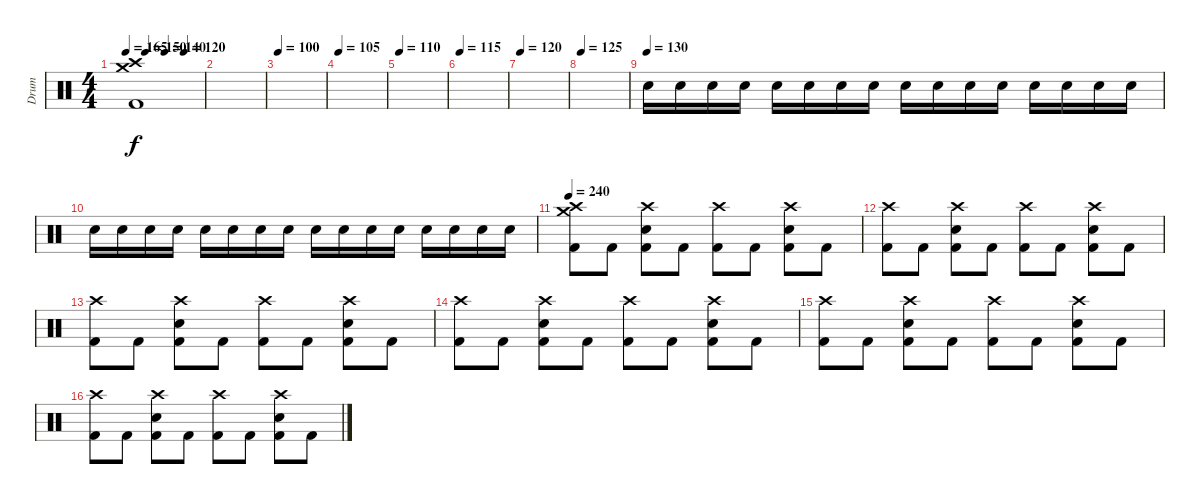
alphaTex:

\track ("Drum" "Drum") {instrument percussion}
\staff {score}
\articulation defaults
\ts (4 4)
\tempo 165
\tempo (150 0.25)
\tempo (140 0.5)
\tempo (120 0.75)
\clef neutral
\ks c
("Crash high (hit)" "Kick (hit) 2" "Crash medium (hit)").1{dy f} |
|
\tempo 100
|
\tempo 105
|
\tempo 110
|
\tempo 115
|
\tempo 120
|
\tempo 125
|
\tempo (130)
"Electric Snare (hit)".16 "Electric Snare (hit)".16 "Electric Snare (hit)".16 "Electric Snare (hit)".16 "Electric Snare (hit)".16 "Electric Snare (hit)".16 "Electric Snare (hit)".16 "Electric Snare (hit)".16 "Electric Snare (hit)".16 "Electric Snare (hit)".16 "Electric Snare (hit)".16 "Electric Snare (hit)".16 "Electric Snare (hit)".16 "Electric Snare (hit)".16 "Electric Snare (hit)".16 "Electric Snare (hit)".16 |
"Electric Snare (hit)".16 "Electric Snare (hit)".16 "Electric Snare (hit)".16 "Electric Snare (hit)".16 "Electric Snare (hit)".16 "Electric Snare (hit)".16 "Electric Snare (hit)".16 "Electric Snare (hit)".16 "Electric Snare (hit)".16 "Electric Snare (hit)".16 "Electric Snare (hit)".16 "Electric Snare (hit)".16 "Electric Snare (hit)".16 "Electric Snare (hit)".16 "Electric Snare (hit)".16 "Electric Snare (hit)".16 |
\tempo 240
("Crash high (hit)" "Kick (hit) 2" "Crash medium (hit)").8 "Kick (hit) 2".8 ("Crash high (hit)" "Kick (hit) 2" "Electric Snare (hit)").8 "Kick (hit) 2".8 ("Crash high (hit)" "Kick (hit) 2").8 "Kick (hit) 2".8 ("Crash high (hit)" "Kick (hit) 2" "Electric Snare (hit)").8 "Kick (hit) 2".8 |
("Crash high (hit)" "Kick (hit) 2").8 "Kick (hit) 2".8 ("Crash high (hit)" "Kick (hit) 2" "Electric Snare (hit)").8 "Kick (hit) 2".8 ("Crash high (hit)" "Kick (hit) 2").8 "Kick (hit) 2".8 ("Crash high (hit)" "Kick (hit) 2" "Electric Snare (hit)").8 "Kick (hit) 2".8 |
("Crash high (hit)" "Kick (hit) 2").8 "Kick (hit) 2".8 ("Crash high (hit)" "Kick (hit) 2" "Electric Snare (hit)").8 "Kick (hit) 2".8 ("Crash high (hit)" "Kick (hit) 2").8 "Kick (hit) 2".8 ("Crash high (hit)" "Kick (hit) 2" "Electric Snare (hit)").8 "Kick (hit) 2".8 |
("Crash high (hit)" "Kick (hit) 2").8 "Kick (hit) 2".8 ("Crash high (hit)" "Kick (hit) 2" "Electric Snare (hit)").8 "Kick (hit) 2".8 ("Crash high (hit)" "Kick (hit) 2").8 "Kick (hit) 2".8 ("Crash high (hit)" "Kick (hit) 2" "Electric Snare (hit)").8 "Kick (hit) 2".8 |
("Crash high (hit)" "Kick (hit) 2").8 "Kick (hit) 2".8 ("Crash high (hit)" "Kick (hit) 2" "Electric Snare (hit)").8 "Kick (hit) 2".8 ("Crash high (hit)" "Kick (hit) 2").8 "Kick (hit) 2".8 ("Crash high (hit)" "Kick (hit) 2" "Electric Snare (hit)").8 "Kick (hit) 2".8 |
("Crash high (hit)" "Kick (hit) 2").8 "Kick (hit) 2".8 ("Crash high (hit)" "Kick (hit) 2" "Electric Snare (hit)").8 "Kick (hit) 2".8 ("Crash high (hit)" "Kick (hit) 2").8 "Kick (hit) 2".8 ("Crash high (hit)" "Kick (hit) 2" "Electric Snare (hit)").8 "Kick (hit) 2".8
